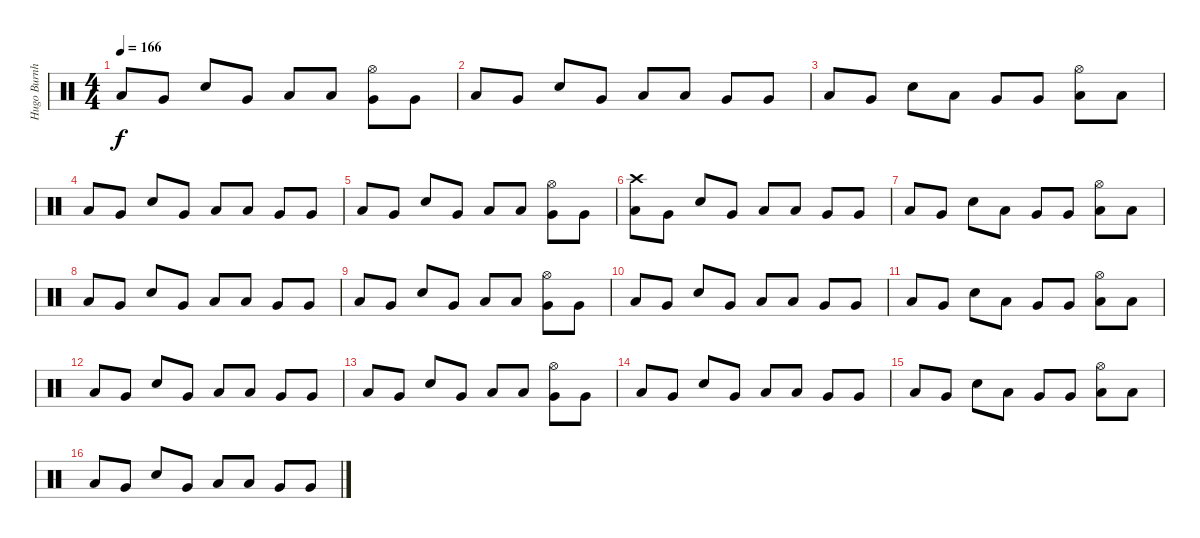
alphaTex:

\track ("Hugo Burnham" "Hugo Burnh") {instrument percussion}
\staff {score}
\articulation defaults
\ts (4 4)
\tempo 166
\clef neutral
\ks c "Low Tom (hit)".8{dy f} "Very Low Tom (hit)".8 "Electric Snare (hit)".8 "Very Low Tom (hit)".8 "Low Tom (hit)".8 "Low Tom (hit)".8
("Hi-Hat (open)" "Very Low Tom (hit)").8 "Very Low Tom (hit)".8 |
"Low Tom (hit)".8 "Very Low Tom (hit)".8 "Electric Snare (hit)".8 "Very Low Tom (hit)".8 "Low Tom (hit)".8 "Low Tom (hit)".8 "Very Low Tom (hit)".8 "Very Low Tom (hit)".8 |
"Low Tom (hit)".8 "Very Low Tom (hit)".8 "Electric Snare (hit)".8 "Low Tom (hit)".8 "Very Low Tom (hit)".8 "Very Low Tom (hit)".8 ("Hi-Hat (open)" "Low Tom (hit)").8 "Low Tom (hit)".8 |
"Low Tom (hit)".8 "Very Low Tom (hit)".8 "Electric Snare (hit)".8 "Very Low Tom (hit)".8 "Low Tom (hit)".8 "Low Tom (hit)".8 "Very Low Tom (hit)".8 "Very Low Tom (hit)".8 |
"Low Tom (hit)".8 "Very Low Tom (hit)".8 "Electric Snare (hit)".8 "Very Low Tom (hit)".8 "Low Tom (hit)".8 "Low Tom (hit)".8 ("Hi-Hat (open)" "Very Low Tom (hit)").8 "Very Low Tom (hit)".8 |
("Crash high (hit)" "Low Tom (hit)").8 "Very Low Tom (hit)".8 "Electric Snare (hit)".8 "Very Low Tom (hit)".8 "Low Tom (hit)".8 "Low Tom (hit)".8 "Very Low Tom (hit)".8 "Very Low Tom (hit)".8 |
"Low Tom (hit)".8 "Very Low Tom (hit)".8 "Electric Snare (hit)".8 "Low Tom (hit)".8 "Very Low Tom (hit)".8 "Very Low Tom (hit)".8 ("Hi-Hat (open)" "Low Tom (hit)").8 "Low Tom (hit)".8 |
"Low Tom (hit)".8 "Very Low Tom (hit)".8 "Electric Snare (hit)".8 "Very Low Tom (hit)".8 "Low Tom (hit)".8 "Low Tom (hit)".8 "Very Low Tom (hit)".8 "Very Low Tom (hit)".8 |
"Low Tom (hit)".8 "Very Low Tom (hit)".8 "Electric Snare (hit)".8 "Very Low Tom (hit)".8 "Low Tom (hit)".8 "Low Tom (hit)".8 ("Hi-Hat (open)" "Very Low Tom (hit)").8 "Very Low Tom (hit)".8 |
"Low Tom (hit)".8 "Very Low Tom (hit)".8 "Electric Snare (hit)".8 "Very Low Tom (hit)".8 "Low Tom (hit)".8 "Low Tom (hit)".8 "Very Low Tom (hit)".8 "Very Low Tom (hit)".8 |
"Low Tom (hit)".8 "Very Low Tom (hit)".8 "Electric Snare (hit)".8 "Low Tom (hit)".8 "Very Low Tom (hit)".8 "Very Low Tom (hit)".8 ("Hi-Hat (open)" "Low Tom (hit)").8 "Low Tom (hit)".8 |
"Low Tom (hit)".8 "Very Low Tom (hit)".8 "Electric Snare (hit)".8 "Very Low Tom (hit)".8 "Low Tom (hit)".8 "Low Tom (hit)".8 "Very Low Tom (hit)".8 "Very Low Tom (hit)".8 |
"Low Tom (hit)".8 "Very Low Tom (hit)".8 "Electric Snare (hit)".8 "Very Low Tom (hit)".8 "Low Tom (hit)".8 "Low Tom (hit)".8 ("Hi-Hat (open)" "Very Low Tom (hit)").8 "Very Low Tom (hit)".8 |
"Low Tom (hit)".8 "Very Low Tom (hit)".8 "Electric Snare (hit)".8 "Very Low Tom (hit)".8 "Low Tom (hit)".8 "Low Tom (hit)".8 "Very Low Tom (hit)".8 "Very Low Tom (hit)".8 |
"Low Tom (hit)".8 "Very Low Tom (hit)".8 "Electric Snare (hit)".8 "Low Tom (hit)".8 "Very Low Tom (hit)".8 "Very Low Tom (hit)".8 ("Hi-Hat (open)" "Low Tom (hit)").8 "Low Tom (hit)".8 |
"Low Tom (hit)".8 "Very Low Tom (hit)".8 "Electric Snare (hit)".8 "Very Low Tom (hit)".8 "Low Tom (hit)".8 "Low Tom (hit)".8 "Very Low Tom (hit)".8 "Very Low Tom (hit)".8
